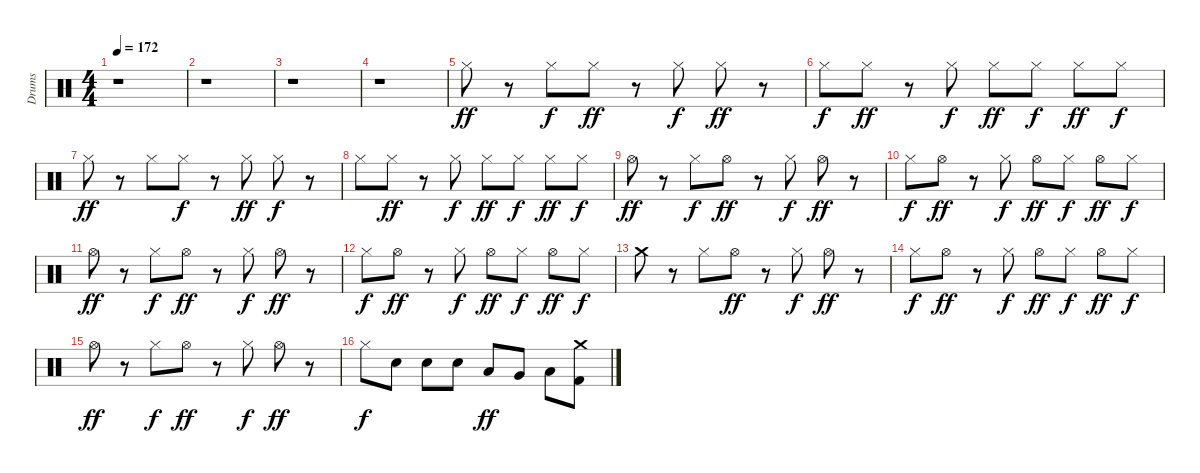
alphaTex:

\track ("Drums" "Drums") {instrument percussion}
\staff {score}
\articulation defaults
\ts (4 4)
\tempo 172
\clef neutral
\ks c
r.1{dy ff} |
r.1 |
r.1 |
r.1 |
"Hi-Hat (closed)".8 r.8 "Hi-Hat (closed)".8{dy f} "Hi-Hat (closed)".8{dy ff} r.8 "Hi-Hat (closed)".8{dy f} "Hi-Hat (closed)".8{dy ff} r.8 |
"Hi-Hat (closed)".8{dy f} "Hi-Hat (closed)".8{dy ff} r.8 "Hi-Hat (closed)".8{dy f} "Hi-Hat (closed)".8{dy ff} "Hi-Hat (closed)".8{dy f} "Hi-Hat (closed)".8{dy ff} "Hi-Hat (closed)".8{dy f} |
"Hi-Hat (closed)".8{dy ff} r.8 "Hi-Hat (closed)".8 "Hi-Hat (closed)".8{dy f} r.8 "Hi-Hat (closed)".8{dy ff} "Hi-Hat (closed)".8{dy f} r.8 |
"Hi-Hat (closed)".8 "Hi-Hat (closed)".8{dy ff} r.8 "Hi-Hat (closed)".8{dy f} "Hi-Hat (closed)".8{dy ff} "Hi-Hat (closed)".8{dy f} "Hi-Hat (closed)".8{dy ff} "Hi-Hat (closed)".8{dy f} |
"Hi-Hat (open)".8{dy ff} r.8 "Hi-Hat (closed)".8{dy f} "Hi-Hat (open)".8{dy ff} r.8 "Hi-Hat (closed)".8{dy f} "Hi-Hat (open)".8{dy ff} r.8 |
"Hi-Hat (closed)".8{dy f} "Hi-Hat (open)".8{dy ff} r.8 "Hi-Hat (closed)".8{dy f} "Hi-Hat (open)".8{dy ff} "Hi-Hat (closed)".8{dy f} "Hi-Hat (open)".8{dy ff} "Hi-Hat (closed)".8{dy f} |
"Hi-Hat (open)".8{dy ff} r.8 "Hi-Hat (closed)".8{dy f} "Hi-Hat (open)".8{dy ff} r.8 "Hi-Hat (closed)".8{dy f} "Hi-Hat (open)".8{dy ff} r.8 |
"Hi-Hat (closed)".8{dy f} "Hi-Hat (open)".8{dy ff} r.8 "Hi-Hat (closed)".8{dy f} "Hi-Hat (open)".8{dy ff} "Hi-Hat (closed)".8{dy f} "Hi-Hat (open)".8{dy ff} "Hi-Hat (closed)".8{dy f} |
"Crash medium (hit)".8 r.8 "Hi-Hat (closed)".8 "Hi-Hat (open)".8{dy ff} r.8 "Hi-Hat (closed)".8{dy f} "Hi-Hat (open)".8{dy ff} r.8 |
"Hi-Hat (closed)".8{dy f} "Hi-Hat (open)".8{dy ff} r.8 "Hi-Hat (closed)".8{dy f} "Hi-Hat (open)".8{dy ff} "Hi-Hat (closed)".8{dy f} "Hi-Hat (open)".8{dy ff} "Hi-Hat (closed)".8{dy f} |
"Hi-Hat (open)".8{dy ff} r.8 "Hi-Hat (closed)".8{dy f} "Hi-Hat (open)".8{dy ff} r.8 "Hi-Hat (closed)".8{dy f} "Hi-Hat (open)".8{dy ff} r.8 |
"Hi-Hat (closed)".8{dy f} "Electric Snare (hit)".8 "Electric Snare (hit)".8 "Electric Snare (hit)".8 "Low Tom (hit)".8{dy ff} "Very Low Tom (hit)".8 "Low Floor Tom (hit)".8 ("Crash medium (hit)" "Kick (hit) 2").8
